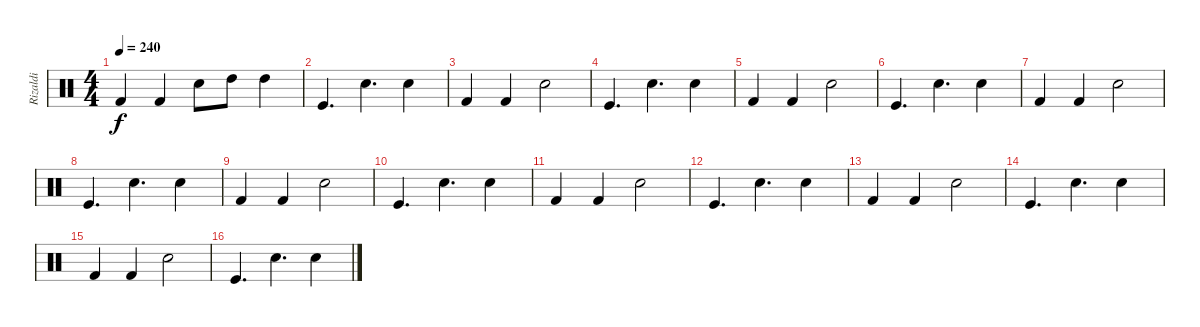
\track ("Rizaldi" "Rizaldi") {instrument percussion}
\staff {score}
\articulation defaults
\ts (4 4)
\tempo 240
\clef neutral
\ks c "Kick (hit) 2".4{dy f} "Kick (hit) 2".4 "Snare (hit) 2".8 "High Tom (hit)".8 "High Tom (hit)".4
|
"Kick (hit)".4{d} "Electric Snare (hit)".4{d} "Electric Snare (hit)".4 |
"Kick (hit) 2".4 "Kick (hit) 2".4 "Snare (hit) 2".2 |
"Kick (hit)".4{d} "Electric Snare (hit)".4{d} "Electric Snare (hit)".4 |
"Kick (hit) 2".4 "Kick (hit) 2".4 "Snare (hit) 2".2 |
"Kick (hit)".4{d} "Electric Snare (hit)".4{d} "Electric Snare (hit)".4 |
"Kick (hit) 2".4 "Kick (hit) 2".4 "Snare (hit) 2".2 |
"Kick (hit)".4{d} "Electric Snare (hit)".4{d} "Electric Snare (hit)".4 |
"Kick (hit) 2".4 "Kick (hit) 2".4 "Snare (hit) 2".2 |
"Kick (hit)".4{d} "Electric Snare (hit)".4{d} "Electric Snare (hit)".4 |
"Kick (hit) 2".4 "Kick (hit) 2".4 "Snare (hit) 2".2 |
"Kick (hit)".4{d} "Electric Snare (hit)".4{d} "Electric Snare (hit)".4 |
"Kick (hit) 2".4 "Kick (hit) 2".4 "Snare (hit) 2".2 |
"Kick (hit)".4{d} "Electric Snare (hit)".4{d} "Electric Snare (hit)".4 |
"Kick (hit) 2".4 "Kick (hit) 2".4 "Snare (hit) 2".2 |
"Kick (hit)".4{d} "Electric Snare (hit)".4{d} "Electric Snare (hit)".4
